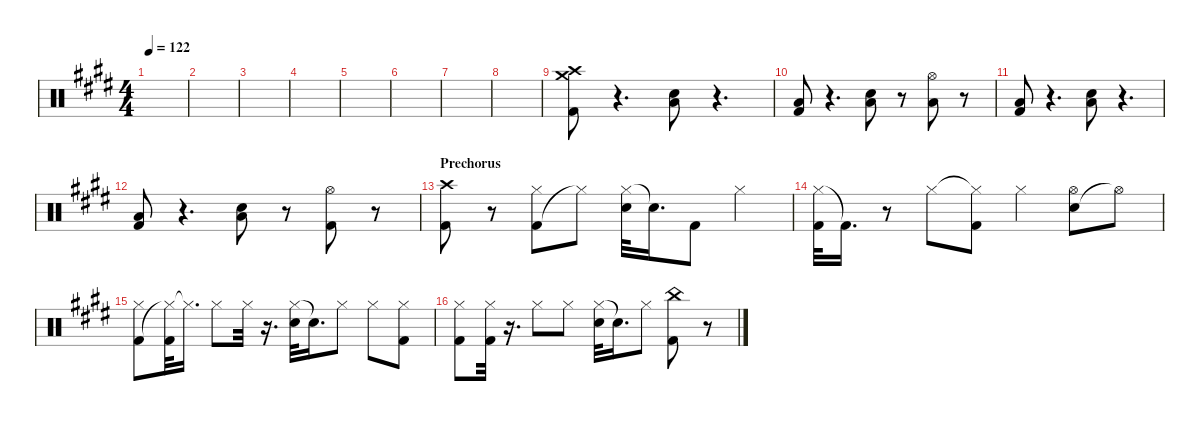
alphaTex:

\defaultSystemsLayout 4
\hideDynamics
\bracketExtendMode nobrackets
\otherSystemsTrackNameOrientation horizontal
\track ("Shinya" "  ") {instrument percussion}
\staff {score}
\articulation defaults
\ts (4 4)
\tempo 122
\clef neutral
\ks c#minor
|
|
|
|
|
|
|
|
("Kick (hit) 2"{acc forcenatural} "Crash high (hit)"{acc #} "Crash medium (hit)"{acc forcenatural}).8 r.4{d} ("Snare (hit) 2"{acc forcenatural} "Low Tom (hit)"{acc forcenatural}).8 r.4{d} |
("Kick (hit) 2"{acc forcenatural} "Low Tom (hit)"{acc forcenatural}).8 r.4{d} ("Snare (hit) 2"{acc forcenatural} "Low Tom (hit)"{acc forcenatural}).8 r.8 ("Low Tom (hit)"{acc forcenatural} "Hi-Hat (open)"{acc #}).8 r.8 |
("Kick (hit) 2"{acc forcenatural} "Low Tom (hit)"{acc forcenatural}).8 r.4{d} ("Snare (hit) 2"{acc forcenatural} "Low Tom (hit)"{acc forcenatural}).8 r.4{d} |
("Kick (hit) 2"{acc forcenatural} "Low Tom (hit)"{acc forcenatural}).8 r.4{d} ("Snare (hit) 2"{acc forcenatural} "Low Tom (hit)"{acc forcenatural}).8 r.8 ("Kick (hit) 2"{acc forcenatural} "Hi-Hat (open)"{acc #}).8 r.8 |
\section ("" "Prechorus")
("Kick (hit) 2"{acc forcenatural} "Crash high (hit)"{acc #}).8 r.8 ("Kick (hit) 2"{acc forcenatural} "Hi-Hat (closed)"{acc #}).8 "Hi-Hat (closed)"{t acc #}.8 ("Hi-Hat (closed)"{acc #} "Snare (hit) 2"{acc forcenatural}).32 "Snare (hit) 2"{t acc forcenatural}.16{d} "Kick (hit) 2"{acc forcenatural}.8 "Hi-Hat (closed)"{acc #}.4{dy ff} |
("Hi-Hat (closed)"{acc #} "Kick (hit) 2"{acc forcenatural}).32{dy fff} "Kick (hit) 2"{t acc forcenatural}.16{d} r.8 "Hi-Hat (closed)"{acc #}.8 ("Hi-Hat (closed)"{t acc #} "Kick (hit) 2"{acc forcenatural}).8 "Hi-Hat (closed)"{acc #}.4 ("Snare (hit) 2"{acc forcenatural} "Hi-Hat (open)"{acc #}).8 "Hi-Hat (open)"{t acc #}.8 |
("Kick (hit) 2"{acc forcenatural} "Hi-Hat (closed)"{acc #}).8 ("Hi-Hat (closed)"{t acc #} "Kick (hit) 2"{acc forcenatural}).32 "Hi-Hat (closed)"{t acc #}.16{d} "Hi-Hat (closed)"{acc #}.8{dy ff} "Hi-Hat (closed)"{acc #}.32 r.16{d} ("Hi-Hat (closed)"{acc #} "Snare (hit) 2"{acc forcenatural}).32 "Snare (hit) 2"{t acc forcenatural}.16{d dy fff} "Hi-Hat (closed)"{acc #}.8{dy ff} "Hi-Hat (closed)"{acc #}.8 ("Kick (hit) 2"{acc forcenatural} "Hi-Hat (closed)"{acc #}).8{dy fff} |
("Kick (hit) 2"{acc forcenatural} "Hi-Hat (closed)"{acc #}).8 ("Kick (hit) 2"{acc forcenatural} "Hi-Hat (closed)"{acc #}).32 r.16{d} "Hi-Hat (closed)"{acc #}.8{dy ff} "Hi-Hat (closed)"{acc #}.8 ("Hi-Hat (closed)"{acc #} "Snare (hit) 2"{acc forcenatural}).32 "Snare (hit) 2"{t acc forcenatural}.16{d dy fff} "Hi-Hat (closed)"{acc #}.8{dy ff} ("Kick (hit) 2"{acc forcenatural} "China (hit)"{acc forcenatural}).8{dy fff} r.8
